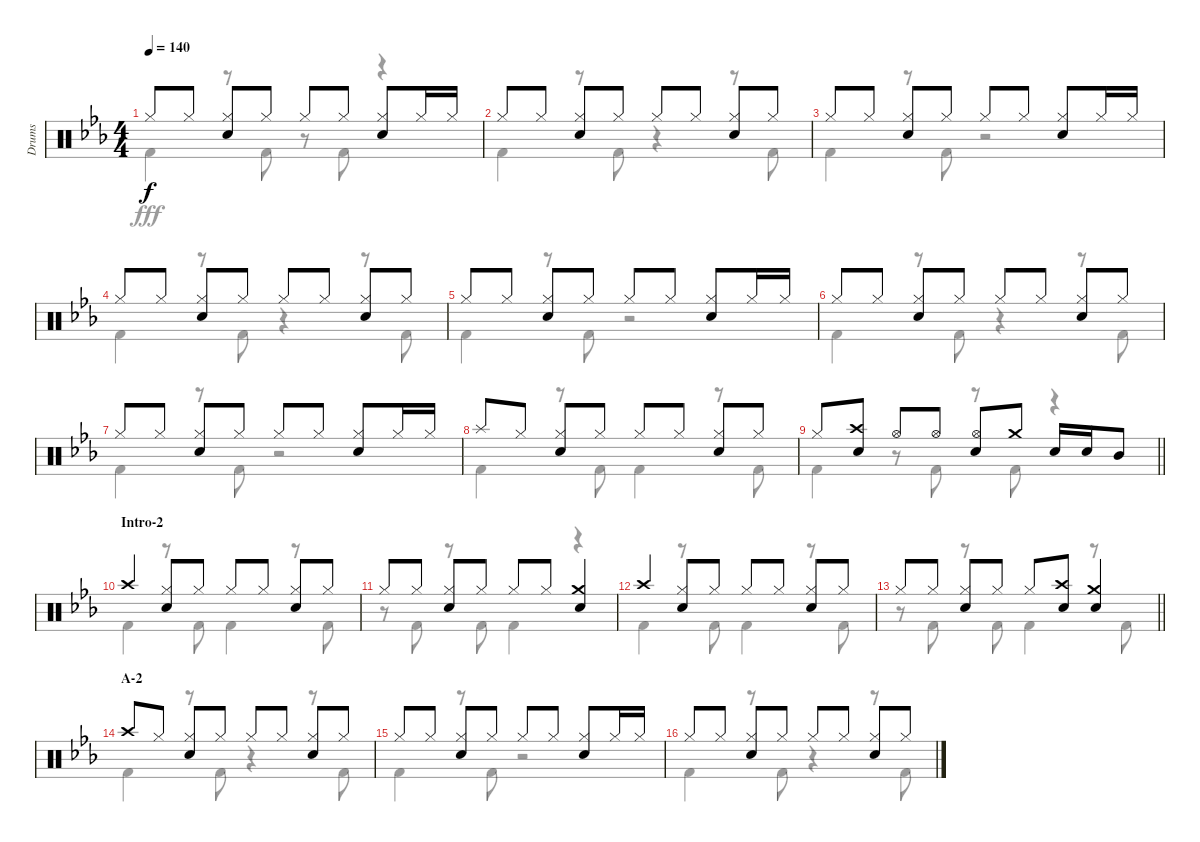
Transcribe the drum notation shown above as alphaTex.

\track ("Drums" "Drums") {instrument percussion}
\staff {score}
\articulation defaults
\voice
\ts (4 4)
\tempo 140
\clef neutral
\ks eb "Hi-Hat (closed)".8{dy f} "Hi-Hat (closed)".8
("Hi-Hat (closed)" "Snare (hit) 2").8 "Hi-Hat (closed)".8 "Hi-Hat (closed)".8 "Hi-Hat (closed)".8 ("Hi-Hat (closed)" "Snare (hit) 2").8 "Hi-Hat (closed)".16 "Hi-Hat (closed)".16 |
"Hi-Hat (closed)".8 "Hi-Hat (closed)".8 ("Hi-Hat (closed)" "Snare (hit) 2").8 "Hi-Hat (closed)".8 "Hi-Hat (closed)".8 "Hi-Hat (closed)".8 ("Hi-Hat (closed)" "Snare (hit) 2").8 "Hi-Hat (closed)".8 |
"Hi-Hat (closed)".8 "Hi-Hat (closed)".8 ("Hi-Hat (closed)" "Snare (hit) 2").8 "Hi-Hat (closed)".8 "Hi-Hat (closed)".8 "Hi-Hat (closed)".8 ("Hi-Hat (closed)" "Snare (hit) 2").8 "Hi-Hat (closed)".16 "Hi-Hat (closed)".16 |
"Hi-Hat (closed)".8 "Hi-Hat (closed)".8 ("Hi-Hat (closed)" "Snare (hit) 2").8 "Hi-Hat (closed)".8 "Hi-Hat (closed)".8 "Hi-Hat (closed)".8 ("Hi-Hat (closed)" "Snare (hit) 2").8 "Hi-Hat (closed)".8 |
"Hi-Hat (closed)".8 "Hi-Hat (closed)".8 ("Hi-Hat (closed)" "Snare (hit) 2").8 "Hi-Hat (closed)".8 "Hi-Hat (closed)".8 "Hi-Hat (closed)".8 ("Hi-Hat (closed)" "Snare (hit) 2").8 "Hi-Hat (closed)".16 "Hi-Hat (closed)".16 |
"Hi-Hat (closed)".8 "Hi-Hat (closed)".8 ("Hi-Hat (closed)" "Snare (hit) 2").8 "Hi-Hat (closed)".8 "Hi-Hat (closed)".8 "Hi-Hat (closed)".8 ("Hi-Hat (closed)" "Snare (hit) 2").8 "Hi-Hat (closed)".8 |
"Hi-Hat (closed)".8 "Hi-Hat (closed)".8 ("Hi-Hat (closed)" "Snare (hit) 2").8 "Hi-Hat (closed)".8 "Hi-Hat (closed)".8 "Hi-Hat (closed)".8 ("Hi-Hat (closed)" "Snare (hit) 2").8 "Hi-Hat (closed)".16 "Hi-Hat (closed)".16 |
"Splash (hit)".8 "Hi-Hat (closed)".8 ("Hi-Hat (closed)" "Snare (hit) 2").8 "Hi-Hat (closed)".8 "Hi-Hat (closed)".8 "Hi-Hat (closed)".8 ("Hi-Hat (closed)" "Snare (hit) 2").8 "Hi-Hat (closed)".8 |
\barLineRight lightlight "Hi-Hat (closed)".8
("Crash high (hit)" "Snare (hit) 2").8 "Hi-Hat (open)".8 "Hi-Hat (open)".8 ("Hi-Hat (open)" "Snare (hit) 2").8 "Crash medium (hit)".8 "Snare (hit) 2".16 "Snare (hit) 2".16 "Mid Tom (hit)".8 |
\section ("" "Intro-2")
"Crash high (hit)".4 ("Hi-Hat (closed)" "Snare (hit) 2").8 "Hi-Hat (closed)".8 "Hi-Hat (closed)".8 "Hi-Hat (closed)".8 ("Hi-Hat (closed)" "Snare (hit) 2").8 "Hi-Hat (closed)".8 |
"Hi-Hat (closed)".8 "Hi-Hat (closed)".8 ("Hi-Hat (closed)" "Snare (hit) 2").8 "Hi-Hat (closed)".8 "Hi-Hat (closed)".8 "Hi-Hat (closed)".8 ("Crash medium (hit)" "Snare (hit) 2").4 |
"Crash high (hit)".4 ("Hi-Hat (closed)" "Snare (hit) 2").8 "Hi-Hat (closed)".8 "Hi-Hat (closed)".8 "Hi-Hat (closed)".8 ("Hi-Hat (closed)" "Snare (hit) 2").8 "Hi-Hat (closed)".8 |
\barLineRight lightlight "Hi-Hat (closed)".8 "Hi-Hat (closed)".8
("Hi-Hat (closed)" "Snare (hit) 2").8 "Hi-Hat (closed)".8 "Hi-Hat (closed)".8 ("Crash high (hit)" "Snare (hit) 2").8 ("Crash medium (hit)" "Snare (hit) 2").4 |
\section ("" "A-2")
"Crash high (hit)".8 "Hi-Hat (closed)".8 ("Hi-Hat (closed)" "Snare (hit) 2").8 "Hi-Hat (closed)".8 "Hi-Hat (closed)".8 "Hi-Hat (closed)".8 ("Hi-Hat (closed)" "Snare (hit) 2").8 "Hi-Hat (closed)".8 |
"Hi-Hat (closed)".8 "Hi-Hat (closed)".8 ("Hi-Hat (closed)" "Snare (hit) 2").8 "Hi-Hat (closed)".8 "Hi-Hat (closed)".8 "Hi-Hat (closed)".8 ("Hi-Hat (closed)" "Snare (hit) 2").8 "Hi-Hat (closed)".16 "Hi-Hat (closed)".16 |
"Hi-Hat (closed)".8 "Hi-Hat (closed)".8 ("Hi-Hat (closed)" "Snare (hit) 2").8 "Hi-Hat (closed)".8 "Hi-Hat (closed)".8 "Hi-Hat (closed)".8 ("Hi-Hat (closed)" "Snare (hit) 2").8 "Hi-Hat (closed)".8
\voice
\clef neutral
\ottava regular
\simile none
\ks eb "Kick (hit) 2".4{dy fff}
r.8 "Kick (hit) 2".8 r.8 "Kick (hit) 2".8 r.4 |
"Kick (hit) 2".4 r.8 "Kick (hit) 2".8 r.4 r.8 "Kick (hit) 2".8 |
"Kick (hit) 2".4 r.8 "Kick (hit) 2".8 r.2 |
"Kick (hit) 2".4 r.8 "Kick (hit) 2".8 r.4 r.8 "Kick (hit) 2".8 |
"Kick (hit) 2".4 r.8 "Kick (hit) 2".8 r.2 |
"Kick (hit) 2".4 r.8 "Kick (hit) 2".8 r.4 r.8 "Kick (hit) 2".8 |
"Kick (hit) 2".4 r.8 "Kick (hit) 2".8 r.2 |
"Kick (hit) 2".4 r.8 "Kick (hit) 2".8 "Kick (hit) 2".4 r.8 "Kick (hit) 2".8 |
\barLineRight lightlight "Kick (hit) 2".4
r.8 "Kick (hit) 2".8 r.8 "Kick (hit) 2".8 r.4 |
"Kick (hit) 2".4 r.8 "Kick (hit) 2".8 "Kick (hit) 2".4 r.8 "Kick (hit) 2".8 |
r.8 "Kick (hit) 2".8 r.8 "Kick (hit) 2".8 "Kick (hit) 2".4 r.4 |
"Kick (hit) 2".4 r.8 "Kick (hit) 2".8 "Kick (hit) 2".4 r.8 "Kick (hit) 2".8 |
\barLineRight lightlight
r.8 "Kick (hit) 2".8 r.8 "Kick (hit) 2".8 "Kick (hit) 2".4 r.8 "Kick (hit) 2".8 |
"Kick (hit) 2".4 r.8 "Kick (hit) 2".8 r.4 r.8 "Kick (hit) 2".8 |
"Kick (hit) 2".4 r.8 "Kick (hit) 2".8 r.2 |
"Kick (hit) 2".4 r.8 "Kick (hit) 2".8 r.4 r.8 "Kick (hit) 2".8
